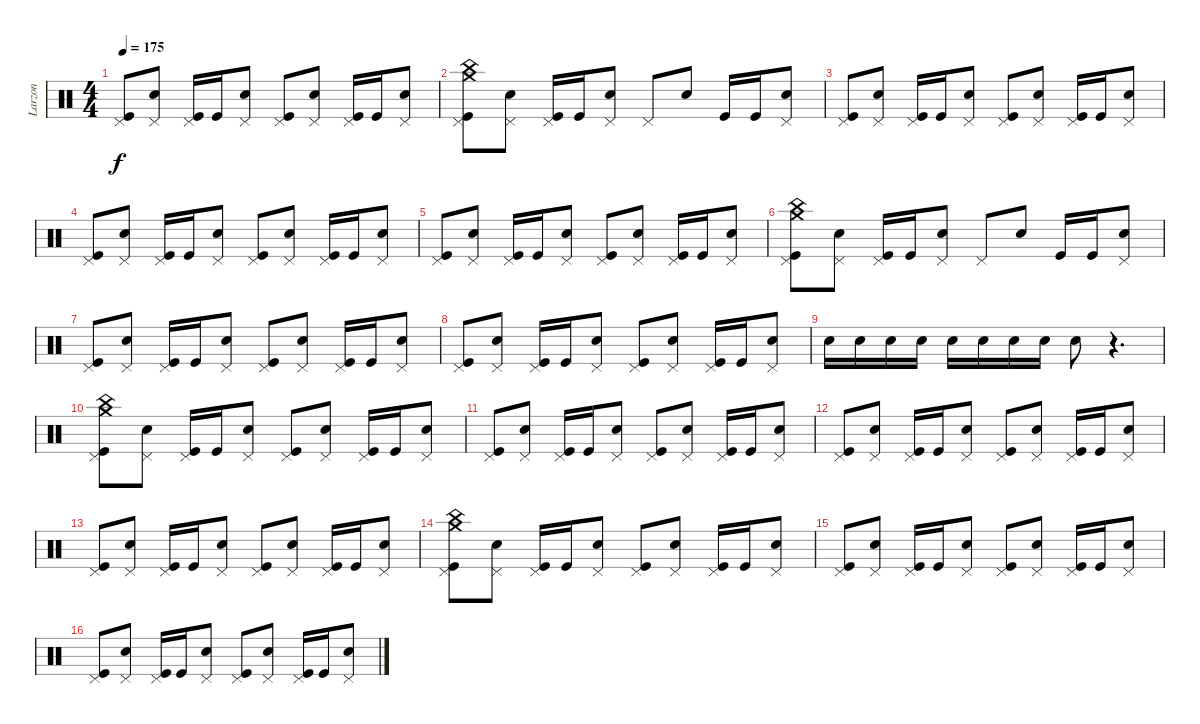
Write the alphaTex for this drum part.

\track ("Larzon" "Larzon") {instrument percussion}
\staff {score}
\articulation defaults
\ts (4 4)
\tempo 175
\clef neutral
\ks c
("Kick (hit)" "Pedal Hi-Hat (hit)").8{dy f} ("Snare (hit) 2" "Pedal Hi-Hat (hit)").8 ("Kick (hit)" "Pedal Hi-Hat (hit)").16 "Kick (hit)".16 ("Snare (hit) 2" "Pedal Hi-Hat (hit)").8 ("Pedal Hi-Hat (hit)" "Kick (hit)").8 ("Snare (hit) 2" "Pedal Hi-Hat (hit)").8 ("Kick (hit)" "Pedal Hi-Hat (hit)").16 "Kick (hit)".16 ("Snare (hit) 2" "Pedal Hi-Hat (hit)").8 |
("China (hit)" "Crash medium (hit)" "Pedal Hi-Hat (hit)" "Kick (hit)").8 ("Snare (hit) 2" "Pedal Hi-Hat (hit)").8 ("Kick (hit)" "Pedal Hi-Hat (hit)").16 "Kick (hit)".16 ("Snare (hit) 2" "Pedal Hi-Hat (hit)").8 "Pedal Hi-Hat (hit)".8 "Snare (hit) 2".8 "Kick (hit)".16 "Kick (hit)".16 ("Snare (hit) 2" "Pedal Hi-Hat (hit)").8 |
("Kick (hit)" "Pedal Hi-Hat (hit)").8 ("Snare (hit) 2" "Pedal Hi-Hat (hit)").8 ("Kick (hit)" "Pedal Hi-Hat (hit)").16 "Kick (hit)".16 ("Snare (hit) 2" "Pedal Hi-Hat (hit)").8 ("Pedal Hi-Hat (hit)" "Kick (hit)").8 ("Snare (hit) 2" "Pedal Hi-Hat (hit)").8 ("Kick (hit)" "Pedal Hi-Hat (hit)").16 "Kick (hit)".16 ("Snare (hit) 2" "Pedal Hi-Hat (hit)").8 |
("Kick (hit)" "Pedal Hi-Hat (hit)").8 ("Snare (hit) 2" "Pedal Hi-Hat (hit)").8 ("Kick (hit)" "Pedal Hi-Hat (hit)").16 "Kick (hit)".16 ("Snare (hit) 2" "Pedal Hi-Hat (hit)").8 ("Pedal Hi-Hat (hit)" "Kick (hit)").8 ("Snare (hit) 2" "Pedal Hi-Hat (hit)").8 ("Kick (hit)" "Pedal Hi-Hat (hit)").16 "Kick (hit)".16 ("Snare (hit) 2" "Pedal Hi-Hat (hit)").8 |
("Kick (hit)" "Pedal Hi-Hat (hit)").8 ("Snare (hit) 2" "Pedal Hi-Hat (hit)").8 ("Kick (hit)" "Pedal Hi-Hat (hit)").16 "Kick (hit)".16 ("Snare (hit) 2" "Pedal Hi-Hat (hit)").8 ("Pedal Hi-Hat (hit)" "Kick (hit)").8 ("Snare (hit) 2" "Pedal Hi-Hat (hit)").8 ("Kick (hit)" "Pedal Hi-Hat (hit)").16 "Kick (hit)".16 ("Snare (hit) 2" "Pedal Hi-Hat (hit)").8 |
("China (hit)" "Crash medium (hit)" "Pedal Hi-Hat (hit)" "Kick (hit)").8 ("Snare (hit) 2" "Pedal Hi-Hat (hit)").8 ("Kick (hit)" "Pedal Hi-Hat (hit)").16 "Kick (hit)".16 ("Snare (hit) 2" "Pedal Hi-Hat (hit)").8 "Pedal Hi-Hat (hit)".8 "Snare (hit) 2".8 "Kick (hit)".16 "Kick (hit)".16 ("Snare (hit) 2" "Pedal Hi-Hat (hit)").8 |
("Kick (hit)" "Pedal Hi-Hat (hit)").8 ("Snare (hit) 2" "Pedal Hi-Hat (hit)").8 ("Kick (hit)" "Pedal Hi-Hat (hit)").16 "Kick (hit)".16 ("Snare (hit) 2" "Pedal Hi-Hat (hit)").8 ("Pedal Hi-Hat (hit)" "Kick (hit)").8 ("Snare (hit) 2" "Pedal Hi-Hat (hit)").8 ("Kick (hit)" "Pedal Hi-Hat (hit)").16 "Kick (hit)".16 ("Snare (hit) 2" "Pedal Hi-Hat (hit)").8 |
("Kick (hit)" "Pedal Hi-Hat (hit)").8 ("Snare (hit) 2" "Pedal Hi-Hat (hit)").8 ("Kick (hit)" "Pedal Hi-Hat (hit)").16 "Kick (hit)".16 ("Snare (hit) 2" "Pedal Hi-Hat (hit)").8 ("Pedal Hi-Hat (hit)" "Kick (hit)").8 ("Snare (hit) 2" "Pedal Hi-Hat (hit)").8 ("Kick (hit)" "Pedal Hi-Hat (hit)").16 "Kick (hit)".16 ("Snare (hit) 2" "Pedal Hi-Hat (hit)").8 |
"Snare (hit) 2".16 "Snare (hit) 2".16 "Snare (hit) 2".16 "Snare (hit) 2".16 "Snare (hit) 2".16 "Snare (hit) 2".16 "Snare (hit) 2".16 "Snare (hit) 2".16 "Snare (hit) 2".8 r.4{d} |
("Kick (hit)" "Pedal Hi-Hat (hit)" "Crash medium (hit)" "China (hit)").8 ("Snare (hit) 2" "Pedal Hi-Hat (hit)").8 ("Kick (hit)" "Pedal Hi-Hat (hit)").16 "Kick (hit)".16 ("Snare (hit) 2" "Pedal Hi-Hat (hit)").8 ("Pedal Hi-Hat (hit)" "Kick (hit)").8 ("Snare (hit) 2" "Pedal Hi-Hat (hit)").8 ("Kick (hit)" "Pedal Hi-Hat (hit)").16 "Kick (hit)".16 ("Snare (hit) 2" "Pedal Hi-Hat (hit)").8 |
("Pedal Hi-Hat (hit)" "Kick (hit)").8 ("Snare (hit) 2" "Pedal Hi-Hat (hit)").8 ("Kick (hit)" "Pedal Hi-Hat (hit)").16 "Kick (hit)".16 ("Snare (hit) 2" "Pedal Hi-Hat (hit)").8 ("Kick (hit)" "Pedal Hi-Hat (hit)").8 ("Snare (hit) 2" "Pedal Hi-Hat (hit)").8 ("Kick (hit)" "Pedal Hi-Hat (hit)").16 "Kick (hit)".16 ("Snare (hit) 2" "Pedal Hi-Hat (hit)").8 |
("Pedal Hi-Hat (hit)" "Kick (hit)").8 ("Snare (hit) 2" "Pedal Hi-Hat (hit)").8 ("Kick (hit)" "Pedal Hi-Hat (hit)").16 "Kick (hit)".16 ("Snare (hit) 2" "Pedal Hi-Hat (hit)").8 ("Kick (hit)" "Pedal Hi-Hat (hit)").8 ("Snare (hit) 2" "Pedal Hi-Hat (hit)").8 ("Kick (hit)" "Pedal Hi-Hat (hit)").16 "Kick (hit)".16 ("Snare (hit) 2" "Pedal Hi-Hat (hit)").8 |
("Pedal Hi-Hat (hit)" "Kick (hit)").8 ("Snare (hit) 2" "Pedal Hi-Hat (hit)").8 ("Kick (hit)" "Pedal Hi-Hat (hit)").16 "Kick (hit)".16 ("Snare (hit) 2" "Pedal Hi-Hat (hit)").8 ("Kick (hit)" "Pedal Hi-Hat (hit)").8 ("Snare (hit) 2" "Pedal Hi-Hat (hit)").8 ("Kick (hit)" "Pedal Hi-Hat (hit)").16 "Kick (hit)".16 ("Snare (hit) 2" "Pedal Hi-Hat (hit)").8 |
("Kick (hit)" "Pedal Hi-Hat (hit)" "Crash medium (hit)" "China (hit)").8 ("Snare (hit) 2" "Pedal Hi-Hat (hit)").8 ("Kick (hit)" "Pedal Hi-Hat (hit)").16 "Kick (hit)".16 ("Snare (hit) 2" "Pedal Hi-Hat (hit)").8 ("Pedal Hi-Hat (hit)" "Kick (hit)").8 ("Snare (hit) 2" "Pedal Hi-Hat (hit)").8 ("Kick (hit)" "Pedal Hi-Hat (hit)").16 "Kick (hit)".16 ("Snare (hit) 2" "Pedal Hi-Hat (hit)").8 |
("Pedal Hi-Hat (hit)" "Kick (hit)").8 ("Snare (hit) 2" "Pedal Hi-Hat (hit)").8 ("Kick (hit)" "Pedal Hi-Hat (hit)").16 "Kick (hit)".16 ("Snare (hit) 2" "Pedal Hi-Hat (hit)").8 ("Kick (hit)" "Pedal Hi-Hat (hit)").8 ("Snare (hit) 2" "Pedal Hi-Hat (hit)").8 ("Kick (hit)" "Pedal Hi-Hat (hit)").16 "Kick (hit)".16 ("Snare (hit) 2" "Pedal Hi-Hat (hit)").8 |
("Pedal Hi-Hat (hit)" "Kick (hit)").8 ("Snare (hit) 2" "Pedal Hi-Hat (hit)").8 ("Kick (hit)" "Pedal Hi-Hat (hit)").16 "Kick (hit)".16 ("Snare (hit) 2" "Pedal Hi-Hat (hit)").8 ("Kick (hit)" "Pedal Hi-Hat (hit)").8 ("Snare (hit) 2" "Pedal Hi-Hat (hit)").8 ("Kick (hit)" "Pedal Hi-Hat (hit)").16 "Kick (hit)".16 ("Snare (hit) 2" "Pedal Hi-Hat (hit)").8
